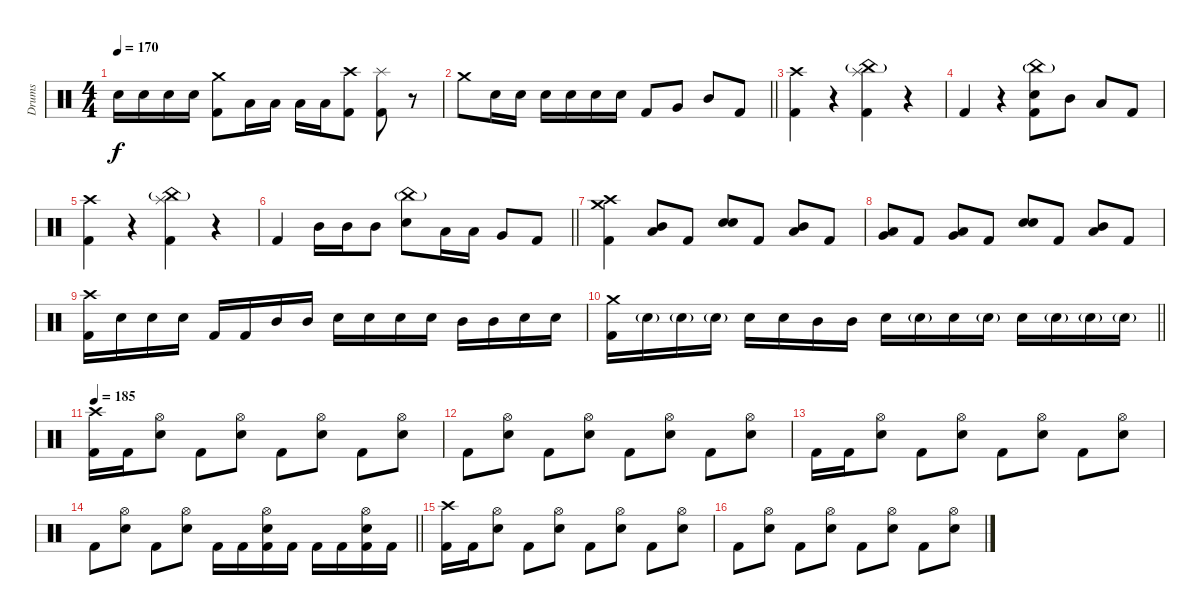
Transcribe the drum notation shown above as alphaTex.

\track ("Drums" "Drums") {instrument percussion}
\staff {score}
\articulation defaults
\ts (4 4)
\tempo 170
\clef neutral
\ks c "Electric Snare (hit)".16{dy f} "Electric Snare (hit)".16 "Electric Snare (hit)".16 "Electric Snare (hit)".16
("Crash medium (hit)" "Kick (hit) 2").8 "Low Tom (hit)".16 "Low Tom (hit)".16 "Low Tom (hit)".16 "Low Tom (hit)".16 ("Crash high (hit)" "Kick (hit) 2").8 ("Splash (hit)" "Kick (hit) 2").8 r.8 |
\barLineRight lightlight "Crash medium (hit)".8 "Electric Snare (hit)".16 "Electric Snare (hit)".16 "Electric Snare (hit)".16 "Electric Snare (hit)".16 "Electric Snare (hit)".16 "Electric Snare (hit)".16 "Kick (hit) 2".8 "Very Low Tom (hit)".8 "Mid Tom (hit)".8 "Kick (hit) 2".8
|
("Crash high (hit)" "Kick (hit) 2").4 r.4 ("China (hit)"{g} "Splash (hit)" "Kick (hit) 2").4 r.4 |
"Kick (hit) 2".4 r.4 ("China (hit)"{g} "Electric Snare (hit)" "Kick (hit) 2").8 "Mid Tom (hit)".8 "Low Tom (hit)".8 "Kick (hit) 2".8 |
("Crash high (hit)" "Kick (hit) 2").4 r.4 ("China (hit)"{g} "Splash (hit)" "Kick (hit) 2").4 r.4 |
\barLineRight lightlight "Kick (hit) 2".4 "Mid Tom (hit)".16 "Mid Tom (hit)".16 "Mid Tom (hit)".8
("China (hit)"{g} "Electric Snare (hit)").8 "Low Tom (hit)".16 "Low Tom (hit)".16 "Very Low Tom (hit)".8 "Kick (hit) 2".8 |
("Crash high (hit)" "Crash medium (hit)" "Kick (hit) 2").4 ("Mid Tom (hit)" "Low Tom (hit)").8 "Kick (hit) 2".8 ("Electric Snare (hit)" "Electric Snare (hit)").8 "Kick (hit) 2".8 ("Mid Tom (hit)" "Low Tom (hit)").8 "Kick (hit) 2".8 |
("Low Tom (hit)" "Very Low Tom (hit)").8 "Kick (hit) 2".8 ("Low Tom (hit)" "Very Low Tom (hit)").8 "Kick (hit) 2".8 ("Electric Snare (hit)" "Electric Snare (hit)").8 "Kick (hit) 2".8 ("Mid Tom (hit)" "Low Tom (hit)").8 "Kick (hit) 2".8 |
("Crash high (hit)" "Kick (hit) 2").16 "Electric Snare (hit)".16 "Electric Snare (hit)".16 "Electric Snare (hit)".16 "Kick (hit) 2".16 "Kick (hit) 2".16 "Mid Tom (hit)".16 "Mid Tom (hit)".16 "Electric Snare (hit)".16 "Electric Snare (hit)".16 "Electric Snare (hit)".16 "Electric Snare (hit)".16 "Mid Tom (hit)".16 "Mid Tom (hit)".16 "Electric Snare (hit)".16 "Electric Snare (hit)".16 |
\barLineRight lightlight
("Crash medium (hit)" "Kick (hit) 2").16 "Electric Snare (hit)"{g}.16 "Electric Snare (hit)"{g}.16 "Electric Snare (hit)"{g}.16 "Electric Snare (hit)".16 "Electric Snare (hit)".16 "Mid Tom (hit)".16 "Mid Tom (hit)".16 "Electric Snare (hit)".16 "Electric Snare (hit)"{g}.16 "Electric Snare (hit)".16 "Electric Snare (hit)"{g}.16 "Electric Snare (hit)".16 "Electric Snare (hit)"{g}.16 "Electric Snare (hit)"{g}.16 "Electric Snare (hit)"{g}.16 |
\tempo 185
("Crash high (hit)" "Kick (hit) 2").16 "Kick (hit) 2".16 ("Hi-Hat (open)" "Electric Snare (hit)").8 "Kick (hit) 2".8 ("Hi-Hat (open)" "Electric Snare (hit)").8 "Kick (hit) 2".8 ("Hi-Hat (open)" "Electric Snare (hit)").8 "Kick (hit) 2".8 ("Hi-Hat (open)" "Electric Snare (hit)").8 |
"Kick (hit) 2".8 ("Hi-Hat (open)" "Electric Snare (hit)").8 "Kick (hit) 2".8 ("Hi-Hat (open)" "Electric Snare (hit)").8 "Kick (hit) 2".8 ("Hi-Hat (open)" "Electric Snare (hit)").8 "Kick (hit) 2".8 ("Hi-Hat (open)" "Electric Snare (hit)").8 |
"Kick (hit) 2".16 "Kick (hit) 2".16 ("Hi-Hat (open)" "Electric Snare (hit)").8 "Kick (hit) 2".8 ("Hi-Hat (open)" "Electric Snare (hit)").8 "Kick (hit) 2".8 ("Hi-Hat (open)" "Electric Snare (hit)").8 "Kick (hit) 2".8 ("Hi-Hat (open)" "Electric Snare (hit)").8 |
\barLineRight lightlight "Kick (hit) 2".8
("Hi-Hat (open)" "Electric Snare (hit)").8 "Kick (hit) 2".8 ("Hi-Hat (open)" "Electric Snare (hit)").8 "Kick (hit) 2".16 "Kick (hit) 2".16 ("Hi-Hat (open)" "Electric Snare (hit)" "Kick (hit) 2").16 "Kick (hit) 2".16 "Kick (hit) 2".16 "Kick (hit) 2".16 ("Hi-Hat (open)" "Electric Snare (hit)" "Kick (hit) 2").16 "Kick (hit) 2".16 |
("Crash high (hit)" "Kick (hit) 2").16 "Kick (hit) 2".16 ("Hi-Hat (open)" "Electric Snare (hit)").8 "Kick (hit) 2".8 ("Hi-Hat (open)" "Electric Snare (hit)").8 "Kick (hit) 2".8 ("Hi-Hat (open)" "Electric Snare (hit)").8 "Kick (hit) 2".8 ("Hi-Hat (open)" "Electric Snare (hit)").8 |
"Kick (hit) 2".8 ("Hi-Hat (open)" "Electric Snare (hit)").8 "Kick (hit) 2".8 ("Hi-Hat (open)" "Electric Snare (hit)").8 "Kick (hit) 2".8 ("Hi-Hat (open)" "Electric Snare (hit)").8 "Kick (hit) 2".8 ("Hi-Hat (open)" "Electric Snare (hit)").8
